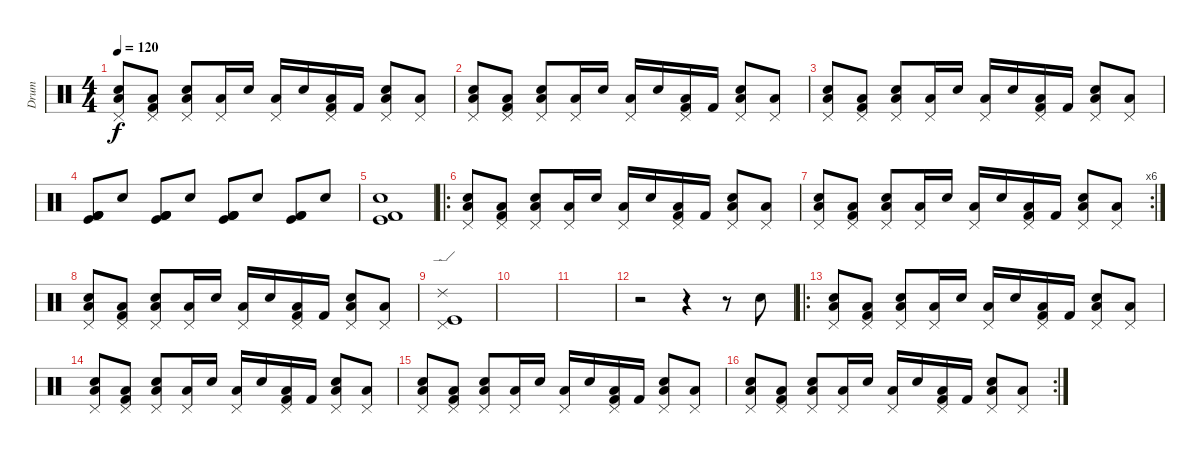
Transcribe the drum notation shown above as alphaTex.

\track ("Drum" "Drum") {instrument percussion}
\staff {score}
\articulation defaults
\ts (4 4)
\tempo 120
\clef neutral
\ks c
("Pedal Hi-Hat (hit)" "Low Floor Tom (hit)" "Snare (hit) 2").8{dy f} ("Pedal Hi-Hat (hit)" "Low Floor Tom (hit)" "Kick (hit) 2").8 ("Pedal Hi-Hat (hit)" "Low Floor Tom (hit)" "Snare (hit) 2").8 ("Pedal Hi-Hat (hit)" "Low Floor Tom (hit)").16 "Snare (hit) 2".16 ("Pedal Hi-Hat (hit)" "Low Floor Tom (hit)").16 "Snare (hit) 2".16 ("Pedal Hi-Hat (hit)" "Low Floor Tom (hit)" "Kick (hit) 2").16 "Kick (hit) 2".16 ("Pedal Hi-Hat (hit)" "Low Floor Tom (hit)" "Snare (hit) 2").8 ("Pedal Hi-Hat (hit)" "Low Floor Tom (hit)").8 |
("Pedal Hi-Hat (hit)" "Low Floor Tom (hit)" "Snare (hit) 2").8 ("Pedal Hi-Hat (hit)" "Low Floor Tom (hit)" "Kick (hit) 2").8 ("Pedal Hi-Hat (hit)" "Low Floor Tom (hit)" "Snare (hit) 2").8 ("Pedal Hi-Hat (hit)" "Low Floor Tom (hit)").16 "Snare (hit) 2".16 ("Pedal Hi-Hat (hit)" "Low Floor Tom (hit)").16 "Snare (hit) 2".16 ("Pedal Hi-Hat (hit)" "Low Floor Tom (hit)" "Kick (hit) 2").16 "Kick (hit) 2".16 ("Pedal Hi-Hat (hit)" "Low Floor Tom (hit)" "Snare (hit) 2").8 ("Pedal Hi-Hat (hit)" "Low Floor Tom (hit)").8 |
("Pedal Hi-Hat (hit)" "Low Floor Tom (hit)" "Snare (hit) 2").8 ("Pedal Hi-Hat (hit)" "Low Floor Tom (hit)" "Kick (hit) 2").8 ("Pedal Hi-Hat (hit)" "Low Floor Tom (hit)" "Snare (hit) 2").8 ("Pedal Hi-Hat (hit)" "Low Floor Tom (hit)").16 "Snare (hit) 2".16 ("Pedal Hi-Hat (hit)" "Low Floor Tom (hit)").16 "Snare (hit) 2".16 ("Pedal Hi-Hat (hit)" "Low Floor Tom (hit)" "Kick (hit) 2").16 "Kick (hit) 2".16 ("Pedal Hi-Hat (hit)" "Low Floor Tom (hit)" "Snare (hit) 2").8 ("Pedal Hi-Hat (hit)" "Low Floor Tom (hit)").8 |
("Kick (hit)" "Kick (hit) 2" "Kick (hit) 2" "Kick (hit) 2").8 "Electric Snare (hit)".8 ("Kick (hit)" "Kick (hit) 2" "Kick (hit) 2" "Kick (hit) 2").8 "Electric Snare (hit)".8 ("Kick (hit)" "Kick (hit) 2" "Kick (hit) 2" "Kick (hit) 2").8 "Electric Snare (hit)".8 ("Kick (hit)" "Kick (hit) 2" "Kick (hit) 2").8 "Electric Snare (hit)".8 |
("Kick (hit)" "Kick (hit) 2" "Electric Snare (hit)").1 |
\ro
("Pedal Hi-Hat (hit)" "Low Floor Tom (hit)" "Snare (hit) 2").8 ("Pedal Hi-Hat (hit)" "Low Floor Tom (hit)" "Kick (hit) 2").8 ("Pedal Hi-Hat (hit)" "Low Floor Tom (hit)" "Snare (hit) 2").8 ("Pedal Hi-Hat (hit)" "Low Floor Tom (hit)").16 "Snare (hit) 2".16 ("Pedal Hi-Hat (hit)" "Low Floor Tom (hit)").16 "Snare (hit) 2".16 ("Pedal Hi-Hat (hit)" "Low Floor Tom (hit)" "Kick (hit) 2").16 "Kick (hit) 2".16 ("Pedal Hi-Hat (hit)" "Low Floor Tom (hit)" "Snare (hit) 2").8 ("Pedal Hi-Hat (hit)" "Low Floor Tom (hit)").8 |
\rc 6
("Pedal Hi-Hat (hit)" "Low Floor Tom (hit)" "Snare (hit) 2").8 ("Pedal Hi-Hat (hit)" "Low Floor Tom (hit)" "Kick (hit) 2").8 ("Pedal Hi-Hat (hit)" "Low Floor Tom (hit)" "Snare (hit) 2").8 ("Pedal Hi-Hat (hit)" "Low Floor Tom (hit)").16 "Snare (hit) 2".16 ("Pedal Hi-Hat (hit)" "Low Floor Tom (hit)").16 "Snare (hit) 2".16 ("Pedal Hi-Hat (hit)" "Low Floor Tom (hit)" "Kick (hit) 2").16 "Kick (hit) 2".16 ("Pedal Hi-Hat (hit)" "Low Floor Tom (hit)" "Snare (hit) 2").8 ("Pedal Hi-Hat (hit)" "Low Floor Tom (hit)").8 |
("Pedal Hi-Hat (hit)" "Low Floor Tom (hit)" "Snare (hit) 2").8 ("Pedal Hi-Hat (hit)" "Low Floor Tom (hit)" "Kick (hit) 2").8 ("Pedal Hi-Hat (hit)" "Low Floor Tom (hit)" "Snare (hit) 2").8 ("Pedal Hi-Hat (hit)" "Low Floor Tom (hit)").16 "Snare (hit) 2".16 ("Pedal Hi-Hat (hit)" "Low Floor Tom (hit)").16 "Snare (hit) 2".16 ("Pedal Hi-Hat (hit)" "Low Floor Tom (hit)" "Kick (hit) 2").16 "Kick (hit) 2".16 ("Pedal Hi-Hat (hit)" "Low Floor Tom (hit)" "Snare (hit) 2").8 ("Pedal Hi-Hat (hit)" "Low Floor Tom (hit)").8 |
("Ride (edge) 2" "Pedal Hi-Hat (hit)" "Kick (hit)").1 |
|
|
r.2 r.4 r.8 "Snare (hit) 2".8 |
\ro
("Pedal Hi-Hat (hit)" "Low Floor Tom (hit)" "Snare (hit) 2").8 ("Pedal Hi-Hat (hit)" "Low Floor Tom (hit)" "Kick (hit) 2").8 ("Pedal Hi-Hat (hit)" "Low Floor Tom (hit)" "Snare (hit) 2").8 ("Pedal Hi-Hat (hit)" "Low Floor Tom (hit)").16 "Snare (hit) 2".16 ("Pedal Hi-Hat (hit)" "Low Floor Tom (hit)").16 "Snare (hit) 2".16 ("Pedal Hi-Hat (hit)" "Low Floor Tom (hit)" "Kick (hit) 2").16 "Kick (hit) 2".16 ("Pedal Hi-Hat (hit)" "Low Floor Tom (hit)" "Snare (hit) 2").8 ("Pedal Hi-Hat (hit)" "Low Floor Tom (hit)").8 |
("Pedal Hi-Hat (hit)" "Low Floor Tom (hit)" "Snare (hit) 2").8 ("Pedal Hi-Hat (hit)" "Low Floor Tom (hit)" "Kick (hit) 2").8 ("Pedal Hi-Hat (hit)" "Low Floor Tom (hit)" "Snare (hit) 2").8 ("Pedal Hi-Hat (hit)" "Low Floor Tom (hit)").16 "Snare (hit) 2".16 ("Pedal Hi-Hat (hit)" "Low Floor Tom (hit)").16 "Snare (hit) 2".16 ("Pedal Hi-Hat (hit)" "Low Floor Tom (hit)" "Kick (hit) 2").16 "Kick (hit) 2".16 ("Pedal Hi-Hat (hit)" "Low Floor Tom (hit)" "Snare (hit) 2").8 ("Pedal Hi-Hat (hit)" "Low Floor Tom (hit)").8 |
("Pedal Hi-Hat (hit)" "Low Floor Tom (hit)" "Snare (hit) 2").8 ("Pedal Hi-Hat (hit)" "Low Floor Tom (hit)" "Kick (hit) 2").8 ("Pedal Hi-Hat (hit)" "Low Floor Tom (hit)" "Snare (hit) 2").8 ("Pedal Hi-Hat (hit)" "Low Floor Tom (hit)").16 "Snare (hit) 2".16 ("Pedal Hi-Hat (hit)" "Low Floor Tom (hit)").16 "Snare (hit) 2".16 ("Pedal Hi-Hat (hit)" "Low Floor Tom (hit)" "Kick (hit) 2").16 "Kick (hit) 2".16 ("Pedal Hi-Hat (hit)" "Low Floor Tom (hit)" "Snare (hit) 2").8 ("Pedal Hi-Hat (hit)" "Low Floor Tom (hit)").8 |
\rc 2
("Pedal Hi-Hat (hit)" "Low Floor Tom (hit)" "Snare (hit) 2").8 ("Pedal Hi-Hat (hit)" "Low Floor Tom (hit)" "Kick (hit) 2").8 ("Pedal Hi-Hat (hit)" "Low Floor Tom (hit)" "Snare (hit) 2").8 ("Pedal Hi-Hat (hit)" "Low Floor Tom (hit)").16 "Snare (hit) 2".16 ("Pedal Hi-Hat (hit)" "Low Floor Tom (hit)").16 "Snare (hit) 2".16 ("Pedal Hi-Hat (hit)" "Low Floor Tom (hit)" "Kick (hit) 2").16 "Kick (hit) 2".16 ("Pedal Hi-Hat (hit)" "Low Floor Tom (hit)" "Snare (hit) 2").8 ("Pedal Hi-Hat (hit)" "Low Floor Tom (hit)").8
